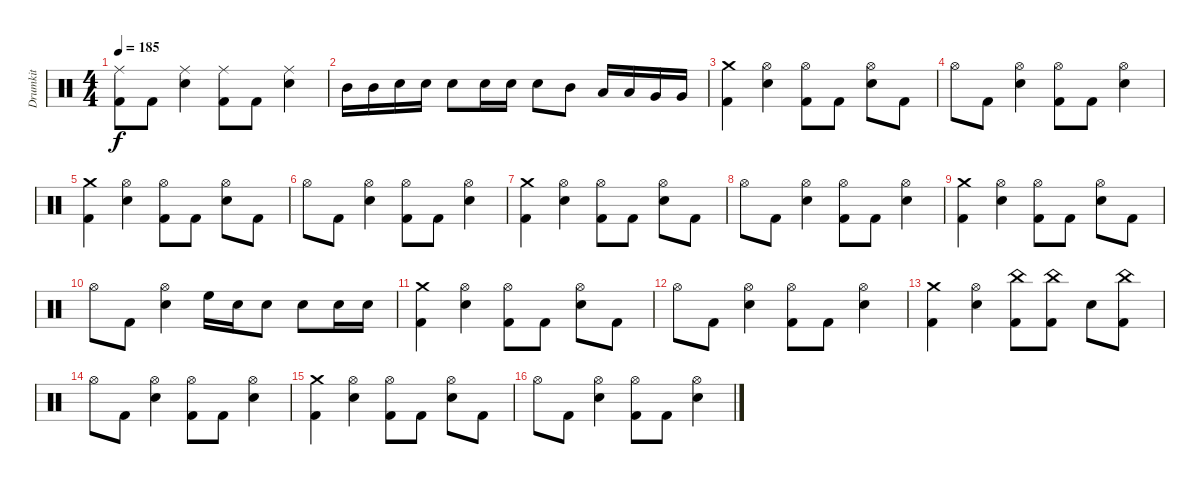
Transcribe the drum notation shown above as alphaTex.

\track ("Drumkit" "Drumkit") {instrument percussion}
\staff {score}
\articulation defaults
\ts (4 4)
\tempo 185
\clef neutral
\ks c
("Ride (middle)" "Kick (hit) 2").8{dy f} "Kick (hit) 2".8 ("Ride (middle)" "Snare (hit) 2").4 ("Ride (middle)" "Kick (hit) 2").8 "Kick (hit) 2".8 ("Ride (middle)" "Snare (hit) 2").4 |
"Mid Tom (hit)".16 "Mid Tom (hit)".16 "Snare (hit) 2".16 "Snare (hit) 2".16 "Snare (hit) 2".8 "Snare (hit) 2".16 "Snare (hit) 2".16 "Snare (hit) 2".8 "Mid Tom (hit)".8 "Low Tom (hit)".16 "Low Tom (hit)".16 "Very Low Tom (hit)".16 "Very Low Tom (hit)".16 |
("Crash medium (hit)" "Kick (hit) 2").4 ("Hi-Hat (open)" "Snare (hit) 2").4 ("Hi-Hat (open)" "Kick (hit) 2").8 "Kick (hit) 2".8 ("Hi-Hat (open)" "Snare (hit) 2").8 "Kick (hit) 2".8 |
"Hi-Hat (open)".8 "Kick (hit) 2".8 ("Hi-Hat (open)" "Snare (hit) 2").4 ("Hi-Hat (open)" "Kick (hit) 2").8 "Kick (hit) 2".8 ("Hi-Hat (open)" "Snare (hit) 2").4 |
("Crash medium (hit)" "Kick (hit) 2").4 ("Hi-Hat (open)" "Snare (hit) 2").4 ("Hi-Hat (open)" "Kick (hit) 2").8 "Kick (hit) 2".8 ("Hi-Hat (open)" "Snare (hit) 2").8 "Kick (hit) 2".8 |
"Hi-Hat (open)".8 "Kick (hit) 2".8 ("Hi-Hat (open)" "Snare (hit) 2").4 ("Hi-Hat (open)" "Kick (hit) 2").8 "Kick (hit) 2".8 ("Hi-Hat (open)" "Snare (hit) 2").4 |
("Crash medium (hit)" "Kick (hit) 2").4 ("Hi-Hat (open)" "Snare (hit) 2").4 ("Hi-Hat (open)" "Kick (hit) 2").8 "Kick (hit) 2".8 ("Hi-Hat (open)" "Snare (hit) 2").8 "Kick (hit) 2".8 |
"Hi-Hat (open)".8 "Kick (hit) 2".8 ("Hi-Hat (open)" "Snare (hit) 2").4 ("Hi-Hat (open)" "Kick (hit) 2").8 "Kick (hit) 2".8 ("Hi-Hat (open)" "Snare (hit) 2").4 |
("Crash medium (hit)" "Kick (hit) 2").4 ("Hi-Hat (open)" "Snare (hit) 2").4 ("Hi-Hat (open)" "Kick (hit) 2").8 "Kick (hit) 2".8 ("Hi-Hat (open)" "Snare (hit) 2").8 "Kick (hit) 2".8 |
"Hi-Hat (open)".8 "Kick (hit) 2".8 ("Hi-Hat (open)" "Snare (hit) 2").4 "High Floor Tom (hit)".16 "Snare (hit) 2".16 "Snare (hit) 2".8 "Snare (hit) 2".8 "Snare (hit) 2".16 "Snare (hit) 2".16 |
("Crash medium (hit)" "Kick (hit) 2").4 ("Hi-Hat (open)" "Snare (hit) 2").4 ("Hi-Hat (open)" "Kick (hit) 2").8 "Kick (hit) 2".8 ("Hi-Hat (open)" "Snare (hit) 2").8 "Kick (hit) 2".8 |
"Hi-Hat (open)".8 "Kick (hit) 2".8 ("Hi-Hat (open)" "Snare (hit) 2").4 ("Hi-Hat (open)" "Kick (hit) 2").8 "Kick (hit) 2".8 ("Hi-Hat (open)" "Snare (hit) 2").4 |
("Crash medium (hit)" "Kick (hit) 2").4 ("Hi-Hat (open)" "Snare (hit) 2").4 ("China (hit)" "Kick (hit) 2").8 ("China (hit)" "Kick (hit) 2").8 "Snare (hit) 2".8 ("China (hit)" "Kick (hit) 2").8 |
"Hi-Hat (open)".8 "Kick (hit) 2".8 ("Hi-Hat (open)" "Snare (hit) 2").4 ("Hi-Hat (open)" "Kick (hit) 2").8 "Kick (hit) 2".8 ("Hi-Hat (open)" "Snare (hit) 2").4 |
("Crash medium (hit)" "Kick (hit) 2").4 ("Hi-Hat (open)" "Snare (hit) 2").4 ("Hi-Hat (open)" "Kick (hit) 2").8 "Kick (hit) 2".8 ("Hi-Hat (open)" "Snare (hit) 2").8 "Kick (hit) 2".8 |
"Hi-Hat (open)".8 "Kick (hit) 2".8 ("Hi-Hat (open)" "Snare (hit) 2").4 ("Hi-Hat (open)" "Kick (hit) 2").8 "Kick (hit) 2".8 ("Hi-Hat (open)" "Snare (hit) 2").4
